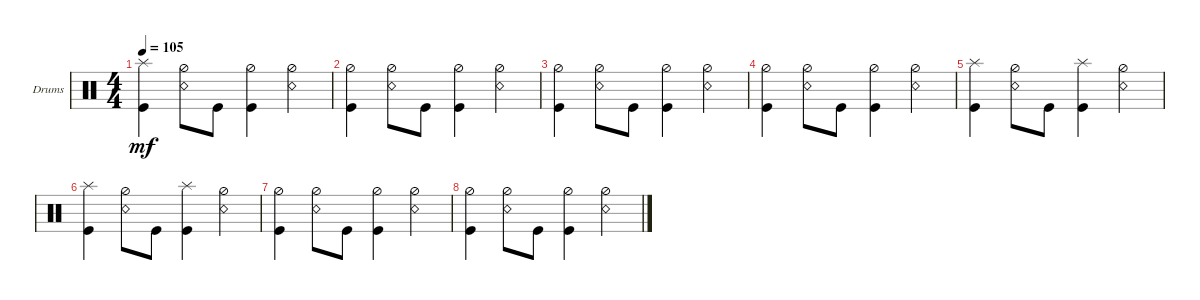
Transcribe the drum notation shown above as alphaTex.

\defaultSystemsLayout 4
\bracketExtendMode groupsimilarinstruments
\firstSystemTrackNameOrientation horizontal
\otherSystemsTrackNameOrientation horizontal
\track ("Drumkit" "Drums") {instrument percussion}
\staff {score}
\articulation defaults
\ts (4 4)
\tempo 105
\clef neutral
\ks c
("Kick (hit)" "Splash (hit)").4{dy mf} ("Snare (rim shot)" "Hi-Hat (half)").8 "Kick (hit)".8 ("Kick (hit)" "Hi-Hat (half)").4 ("Snare (rim shot)" "Hi-Hat (half)").4 |
("Kick (hit)" "Hi-Hat (half)").4 ("Snare (rim shot)" "Hi-Hat (half)").8 "Kick (hit)".8 ("Kick (hit)" "Hi-Hat (half)").4 ("Snare (rim shot)" "Hi-Hat (half)").4 |
("Kick (hit)" "Hi-Hat (half)").4 ("Snare (rim shot)" "Hi-Hat (half)").8 "Kick (hit)".8 ("Kick (hit)" "Hi-Hat (half)").4 ("Snare (rim shot)" "Hi-Hat (half)").4 |
("Kick (hit)" "Hi-Hat (half)").4 ("Snare (rim shot)" "Hi-Hat (half)").8 "Kick (hit)".8 ("Kick (hit)" "Hi-Hat (half)").4 ("Snare (rim shot)" "Hi-Hat (half)").4 |
("Kick (hit)" "Splash (hit)").4 ("Snare (rim shot)" "Hi-Hat (half)").8 "Kick (hit)".8 ("Kick (hit)" "Splash (hit)").4 ("Snare (rim shot)" "Hi-Hat (half)").4 |
("Kick (hit)" "Splash (hit)").4 ("Snare (rim shot)" "Hi-Hat (half)").8 "Kick (hit)".8 ("Kick (hit)" "Splash (hit)").4 ("Snare (rim shot)" "Hi-Hat (half)").4 |
("Kick (hit)" "Hi-Hat (half)").4 ("Snare (rim shot)" "Hi-Hat (half)").8 "Kick (hit)".8 ("Kick (hit)" "Hi-Hat (half)").4 ("Snare (rim shot)" "Hi-Hat (half)").4 |
("Kick (hit)" "Hi-Hat (half)").4 ("Snare (rim shot)" "Hi-Hat (half)").8 "Kick (hit)".8 ("Kick (hit)" "Hi-Hat (half)").4 ("Snare (rim shot)" "Hi-Hat (half)").4
